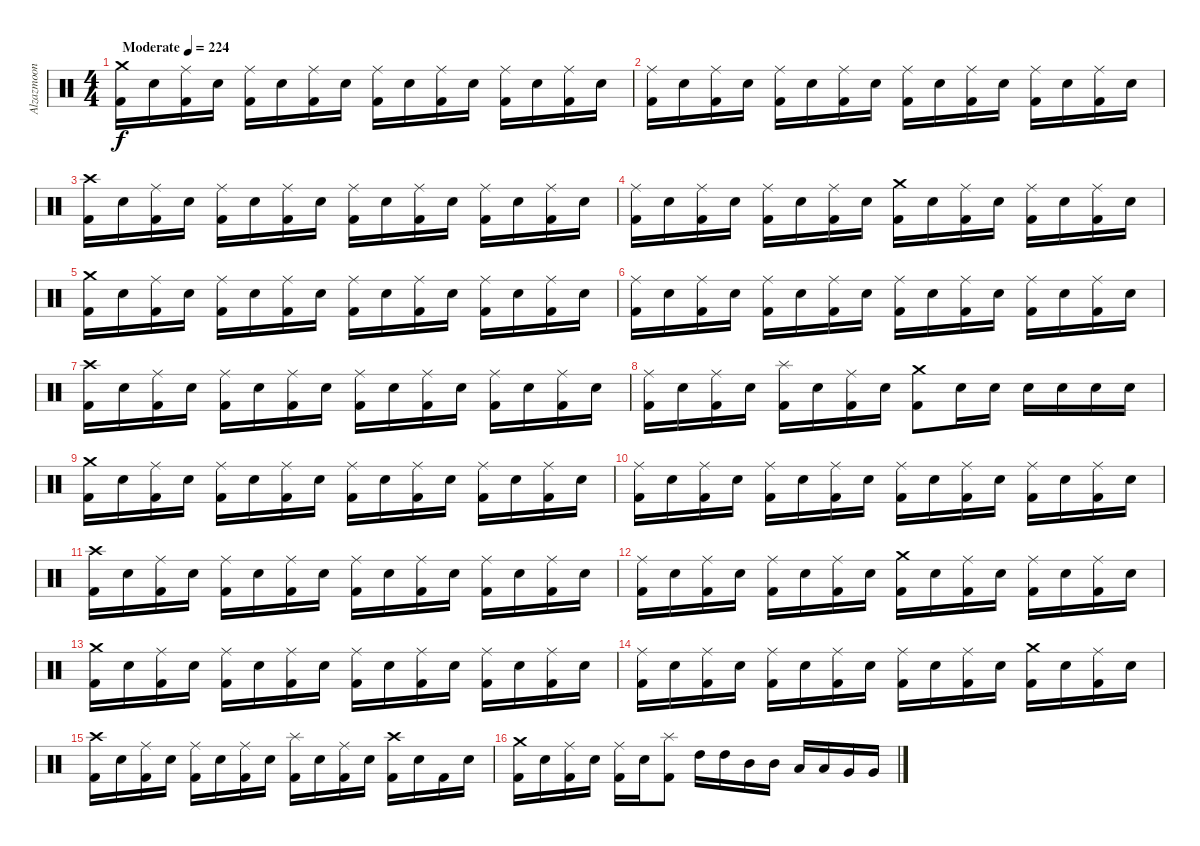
\track ("Alzazmoon" "Alzazmoon") {instrument percussion}
\staff {score}
\articulation defaults
\ts (4 4)
\tempo (224 "Moderate")
\clef neutral
\ks c
("Crash medium (hit)" "Kick (hit) 2").16{dy f} "Snare (hit) 2".16 ("Ride (middle)" "Kick (hit) 2").16 "Snare (hit) 2".16 ("Ride (middle)" "Kick (hit) 2").16 "Snare (hit) 2".16 ("Ride (middle)" "Kick (hit) 2").16 "Snare (hit) 2".16 ("Ride (middle)" "Kick (hit) 2").16 "Snare (hit) 2".16 ("Ride (middle)" "Kick (hit) 2").16 "Snare (hit) 2".16 ("Ride (middle)" "Kick (hit) 2").16 "Snare (hit) 2".16 ("Ride (middle)" "Kick (hit) 2").16 "Snare (hit) 2".16 |
("Ride (middle)" "Kick (hit) 2").16 "Snare (hit) 2".16 ("Ride (middle)" "Kick (hit) 2").16 "Snare (hit) 2".16 ("Ride (middle)" "Kick (hit) 2").16 "Snare (hit) 2".16 ("Ride (middle)" "Kick (hit) 2").16 "Snare (hit) 2".16 ("Ride (middle)" "Kick (hit) 2").16 "Snare (hit) 2".16 ("Ride (middle)" "Kick (hit) 2").16 "Snare (hit) 2".16 ("Ride (middle)" "Kick (hit) 2").16 "Snare (hit) 2".16 ("Ride (middle)" "Kick (hit) 2").16 "Snare (hit) 2".16 |
("Crash high (hit)" "Kick (hit) 2").16 "Snare (hit) 2".16 ("Ride (middle)" "Kick (hit) 2").16 "Snare (hit) 2".16 ("Ride (middle)" "Kick (hit) 2").16 "Snare (hit) 2".16 ("Ride (middle)" "Kick (hit) 2").16 "Snare (hit) 2".16 ("Ride (middle)" "Kick (hit) 2").16 "Snare (hit) 2".16 ("Ride (middle)" "Kick (hit) 2").16 "Snare (hit) 2".16 ("Ride (middle)" "Kick (hit) 2").16 "Snare (hit) 2".16 ("Ride (middle)" "Kick (hit) 2").16 "Snare (hit) 2".16 |
("Ride (middle)" "Kick (hit) 2").16 "Snare (hit) 2".16 ("Ride (middle)" "Kick (hit) 2").16 "Snare (hit) 2".16 ("Ride (middle)" "Kick (hit) 2").16 "Snare (hit) 2".16 ("Ride (middle)" "Kick (hit) 2").16 "Snare (hit) 2".16 ("Crash medium (hit)" "Kick (hit) 2").16 "Snare (hit) 2".16 ("Ride (middle)" "Kick (hit) 2").16 "Snare (hit) 2".16 ("Ride (middle)" "Kick (hit) 2").16 "Snare (hit) 2".16 ("Ride (middle)" "Kick (hit) 2").16 "Snare (hit) 2".16 |
("Crash medium (hit)" "Kick (hit) 2").16 "Snare (hit) 2".16 ("Ride (middle)" "Kick (hit) 2").16 "Snare (hit) 2".16 ("Ride (middle)" "Kick (hit) 2").16 "Snare (hit) 2".16 ("Ride (middle)" "Kick (hit) 2").16 "Snare (hit) 2".16 ("Ride (middle)" "Kick (hit) 2").16 "Snare (hit) 2".16 ("Ride (middle)" "Kick (hit) 2").16 "Snare (hit) 2".16 ("Ride (middle)" "Kick (hit) 2").16 "Snare (hit) 2".16 ("Ride (middle)" "Kick (hit) 2").16 "Snare (hit) 2".16 |
("Ride (middle)" "Kick (hit) 2").16 "Snare (hit) 2".16 ("Ride (middle)" "Kick (hit) 2").16 "Snare (hit) 2".16 ("Ride (middle)" "Kick (hit) 2").16 "Snare (hit) 2".16 ("Ride (middle)" "Kick (hit) 2").16 "Snare (hit) 2".16 ("Ride (middle)" "Kick (hit) 2").16 "Snare (hit) 2".16 ("Ride (middle)" "Kick (hit) 2").16 "Snare (hit) 2".16 ("Ride (middle)" "Kick (hit) 2").16 "Snare (hit) 2".16 ("Ride (middle)" "Kick (hit) 2").16 "Snare (hit) 2".16 |
("Crash high (hit)" "Kick (hit) 2").16 "Snare (hit) 2".16 ("Ride (middle)" "Kick (hit) 2").16 "Snare (hit) 2".16 ("Ride (middle)" "Kick (hit) 2").16 "Snare (hit) 2".16 ("Ride (middle)" "Kick (hit) 2").16 "Snare (hit) 2".16 ("Ride (middle)" "Kick (hit) 2").16 "Snare (hit) 2".16 ("Ride (middle)" "Kick (hit) 2").16 "Snare (hit) 2".16 ("Ride (middle)" "Kick (hit) 2").16 "Snare (hit) 2".16 ("Ride (middle)" "Kick (hit) 2").16 "Snare (hit) 2".16 |
("Ride (middle)" "Kick (hit) 2").16 "Snare (hit) 2".16 ("Ride (middle)" "Kick (hit) 2").16 "Snare (hit) 2".16 ("Splash (hit)" "Kick (hit) 2").16 "Snare (hit) 2".16 ("Ride (middle)" "Kick (hit) 2").16 "Snare (hit) 2".16 ("Crash medium (hit)" "Kick (hit) 2").8 "Snare (hit) 2".16 "Snare (hit) 2".16 "Snare (hit) 2".16 "Snare (hit) 2".16 "Snare (hit) 2".16 "Snare (hit) 2".16 |
("Crash medium (hit)" "Kick (hit) 2").16 "Snare (hit) 2".16 ("Ride (middle)" "Kick (hit) 2").16 "Snare (hit) 2".16 ("Ride (middle)" "Kick (hit) 2").16 "Snare (hit) 2".16 ("Ride (middle)" "Kick (hit) 2").16 "Snare (hit) 2".16 ("Ride (middle)" "Kick (hit) 2").16 "Snare (hit) 2".16 ("Ride (middle)" "Kick (hit) 2").16 "Snare (hit) 2".16 ("Ride (middle)" "Kick (hit) 2").16 "Snare (hit) 2".16 ("Ride (middle)" "Kick (hit) 2").16 "Snare (hit) 2".16 |
("Ride (middle)" "Kick (hit) 2").16 "Snare (hit) 2".16 ("Ride (middle)" "Kick (hit) 2").16 "Snare (hit) 2".16 ("Ride (middle)" "Kick (hit) 2").16 "Snare (hit) 2".16 ("Ride (middle)" "Kick (hit) 2").16 "Snare (hit) 2".16 ("Ride (middle)" "Kick (hit) 2").16 "Snare (hit) 2".16 ("Ride (middle)" "Kick (hit) 2").16 "Snare (hit) 2".16 ("Ride (middle)" "Kick (hit) 2").16 "Snare (hit) 2".16 ("Ride (middle)" "Kick (hit) 2").16 "Snare (hit) 2".16 |
("Crash high (hit)" "Kick (hit) 2").16 "Snare (hit) 2".16 ("Ride (middle)" "Kick (hit) 2").16 "Snare (hit) 2".16 ("Ride (middle)" "Kick (hit) 2").16 "Snare (hit) 2".16 ("Ride (middle)" "Kick (hit) 2").16 "Snare (hit) 2".16 ("Ride (middle)" "Kick (hit) 2").16 "Snare (hit) 2".16 ("Ride (middle)" "Kick (hit) 2").16 "Snare (hit) 2".16 ("Ride (middle)" "Kick (hit) 2").16 "Snare (hit) 2".16 ("Ride (middle)" "Kick (hit) 2").16 "Snare (hit) 2".16 |
("Ride (middle)" "Kick (hit) 2").16 "Snare (hit) 2".16 ("Ride (middle)" "Kick (hit) 2").16 "Snare (hit) 2".16 ("Ride (middle)" "Kick (hit) 2").16 "Snare (hit) 2".16 ("Ride (middle)" "Kick (hit) 2").16 "Snare (hit) 2".16 ("Crash medium (hit)" "Kick (hit) 2").16 "Snare (hit) 2".16 ("Ride (middle)" "Kick (hit) 2").16 "Snare (hit) 2".16 ("Ride (middle)" "Kick (hit) 2").16 "Snare (hit) 2".16 ("Ride (middle)" "Kick (hit) 2").16 "Snare (hit) 2".16 |
("Crash medium (hit)" "Kick (hit) 2").16 "Snare (hit) 2".16 ("Ride (middle)" "Kick (hit) 2").16 "Snare (hit) 2".16 ("Ride (middle)" "Kick (hit) 2").16 "Snare (hit) 2".16 ("Ride (middle)" "Kick (hit) 2").16 "Snare (hit) 2".16 ("Ride (middle)" "Kick (hit) 2").16 "Snare (hit) 2".16 ("Ride (middle)" "Kick (hit) 2").16 "Snare (hit) 2".16 ("Ride (middle)" "Kick (hit) 2").16 "Snare (hit) 2".16 ("Ride (middle)" "Kick (hit) 2").16 "Snare (hit) 2".16 |
("Ride (middle)" "Kick (hit) 2").16 "Snare (hit) 2".16 ("Ride (middle)" "Kick (hit) 2").16 "Snare (hit) 2".16 ("Ride (middle)" "Kick (hit) 2").16 "Snare (hit) 2".16 ("Ride (middle)" "Kick (hit) 2").16 "Snare (hit) 2".16 ("Ride (middle)" "Kick (hit) 2").16 "Snare (hit) 2".16 ("Ride (middle)" "Kick (hit) 2").16 "Snare (hit) 2".16 ("Crash medium (hit)" "Kick (hit) 2").16 "Snare (hit) 2".16 ("Ride (middle)" "Kick (hit) 2").16 "Snare (hit) 2".16 |
("Crash high (hit)" "Kick (hit) 2").16 "Snare (hit) 2".16 ("Ride (middle)" "Kick (hit) 2").16 "Snare (hit) 2".16 ("Ride (middle)" "Kick (hit) 2").16 "Snare (hit) 2".16 ("Ride (middle)" "Kick (hit) 2").16 "Snare (hit) 2".16 ("Splash (hit)" "Kick (hit) 2").16 "Snare (hit) 2".16 ("Ride (middle)" "Kick (hit) 2").16 "Snare (hit) 2".16 ("Crash high (hit)" "Kick (hit) 2").16 "Snare (hit) 2".16 "Kick (hit) 2".16 "Snare (hit) 2".16 |
("Crash medium (hit)" "Kick (hit) 2").16 "Snare (hit) 2".16 ("Ride (middle)" "Kick (hit) 2").16 "Snare (hit) 2".16 ("Ride (middle)" "Kick (hit) 2").16 "Snare (hit) 2".16 ("Splash (hit)" "Kick (hit) 2").8 "High Tom (hit)".16 "High Tom (hit)".16 "Mid Tom (hit)".16 "Mid Tom (hit)".16 "Low Tom (hit)".16 "Low Tom (hit)".16 "Very Low Tom (hit)".16 "Very Low Tom (hit)".16
